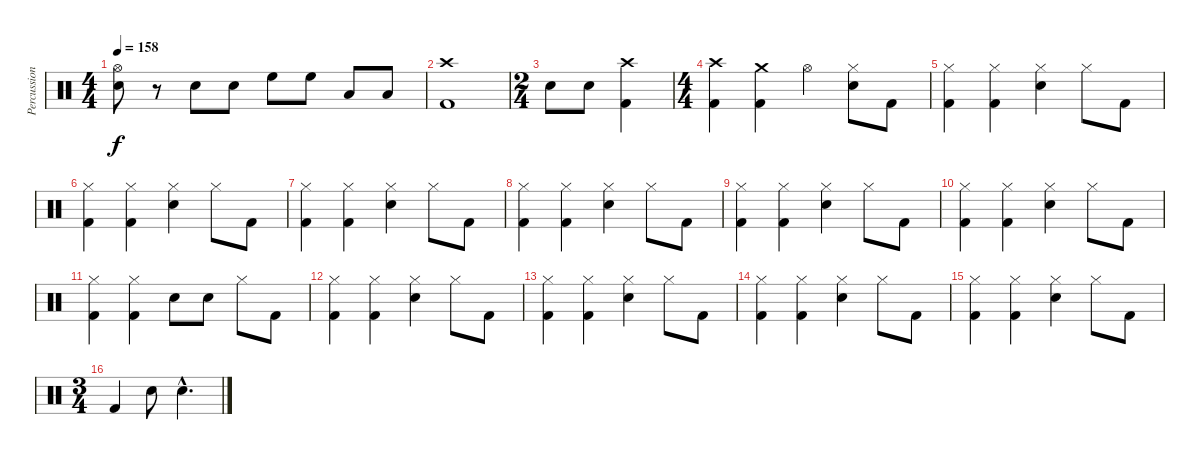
\track ("Percussions" "Percussion") {instrument percussion}
\staff {score}
\articulation defaults
\ts (4 4)
\tempo 158
\clef neutral
\ks c
("Hi-Hat (open)" "Snare (hit) 2").8{dy f} r.8 "Snare (hit) 2".8 "Snare (hit) 2".8 "High Floor Tom (hit)".8 "High Floor Tom (hit)".8 "Low Tom (hit)".8 "Low Floor Tom (hit)".8 |
("Crash high (hit)" "Kick (hit) 2").1 |
\ts (2 4)
"Snare (hit) 2".8 "Snare (hit) 2".8 ("Crash high (hit)" "Kick (hit) 2").4 |
\ts (4 4)
("Crash high (hit)" "Kick (hit) 2").4 ("Crash medium (hit)" "Kick (hit) 2").4 "Hi-Hat (open)".4 ("Hi-Hat (closed)" "Snare (hit) 2").8 "Kick (hit) 2".8 |
("Hi-Hat (closed)" "Kick (hit) 2").4 ("Hi-Hat (closed)" "Kick (hit) 2").4 ("Hi-Hat (closed)" "Snare (hit) 2").4 "Hi-Hat (closed)".8 "Kick (hit) 2".8 |
("Hi-Hat (closed)" "Kick (hit) 2").4 ("Hi-Hat (closed)" "Kick (hit) 2").4 ("Hi-Hat (closed)" "Snare (hit) 2").4 "Hi-Hat (closed)".8 "Kick (hit) 2".8 |
("Hi-Hat (closed)" "Kick (hit) 2").4 ("Hi-Hat (closed)" "Kick (hit) 2").4 ("Hi-Hat (closed)" "Snare (hit) 2").4 "Hi-Hat (closed)".8 "Kick (hit) 2".8 |
("Hi-Hat (closed)" "Kick (hit) 2").4 ("Hi-Hat (closed)" "Kick (hit) 2").4 ("Hi-Hat (closed)" "Snare (hit) 2").4 "Hi-Hat (closed)".8 "Kick (hit) 2".8 |
("Hi-Hat (closed)" "Kick (hit) 2").4 ("Hi-Hat (closed)" "Kick (hit) 2").4 ("Hi-Hat (closed)" "Snare (hit) 2").4 "Hi-Hat (closed)".8 "Kick (hit) 2".8 |
("Hi-Hat (closed)" "Kick (hit) 2").4 ("Hi-Hat (closed)" "Kick (hit) 2").4 ("Hi-Hat (closed)" "Snare (hit) 2").4 "Hi-Hat (closed)".8 "Kick (hit) 2".8 |
("Hi-Hat (closed)" "Kick (hit) 2").4 ("Hi-Hat (closed)" "Kick (hit) 2").4 "Snare (hit) 2".8 "Snare (hit) 2".8 "Hi-Hat (closed)".8 "Kick (hit) 2".8 |
("Hi-Hat (closed)" "Kick (hit) 2").4 ("Hi-Hat (closed)" "Kick (hit) 2").4 ("Hi-Hat (closed)" "Snare (hit) 2").4 "Hi-Hat (closed)".8 "Kick (hit) 2".8 |
("Hi-Hat (closed)" "Kick (hit) 2").4 ("Hi-Hat (closed)" "Kick (hit) 2").4 ("Hi-Hat (closed)" "Snare (hit) 2").4 "Hi-Hat (closed)".8 "Kick (hit) 2".8 |
("Hi-Hat (closed)" "Kick (hit) 2").4 ("Hi-Hat (closed)" "Kick (hit) 2").4 ("Hi-Hat (closed)" "Snare (hit) 2").4 "Hi-Hat (closed)".8 "Kick (hit) 2".8 |
("Hi-Hat (closed)" "Kick (hit) 2").4 ("Hi-Hat (closed)" "Kick (hit) 2").4 ("Hi-Hat (closed)" "Snare (hit) 2").4 "Hi-Hat (closed)".8 "Kick (hit) 2".8 |
\ts (3 4)
"Kick (hit) 2".4 "Snare (hit) 2".8 "Snare (hit) 2"{hac}.4{d}
